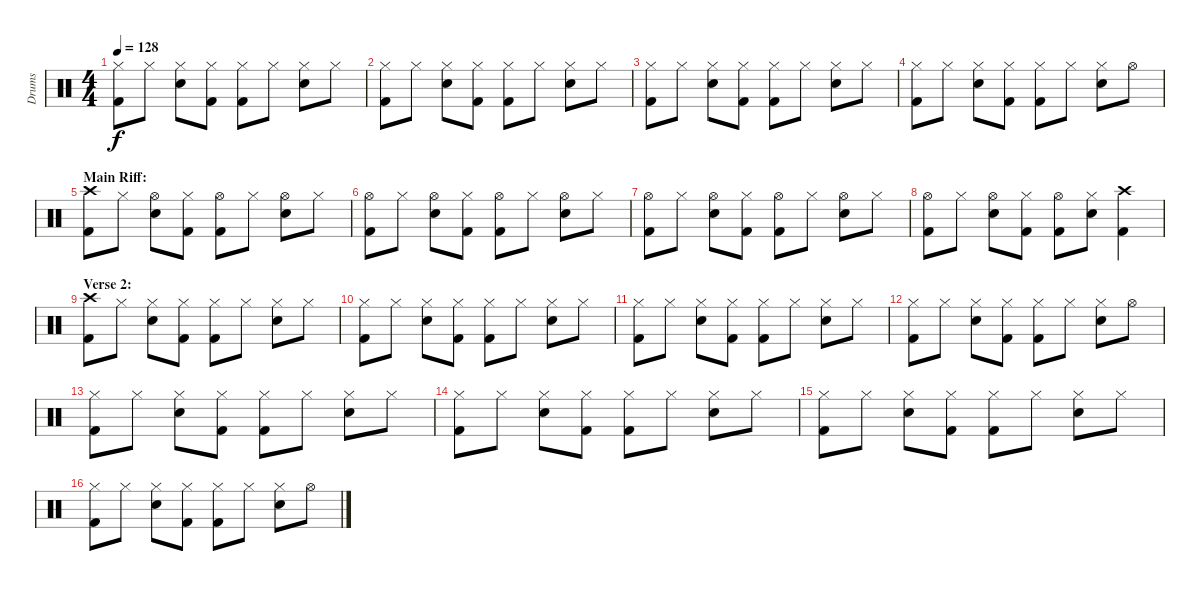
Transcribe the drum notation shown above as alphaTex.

\track ("Drums" "Drums") {instrument percussion}
\staff {score}
\articulation defaults
\ts (4 4)
\tempo 128
\clef neutral
\ks c
("Hi-Hat (closed)" "Kick (hit) 2").8{dy f} "Hi-Hat (closed)".8 ("Hi-Hat (closed)" "Electric Snare (hit)").8 ("Hi-Hat (closed)" "Kick (hit) 2").8 ("Hi-Hat (closed)" "Kick (hit) 2").8 "Hi-Hat (closed)".8 ("Hi-Hat (closed)" "Electric Snare (hit)").8 "Hi-Hat (closed)".8 |
("Hi-Hat (closed)" "Kick (hit) 2").8 "Hi-Hat (closed)".8 ("Hi-Hat (closed)" "Electric Snare (hit)").8 ("Hi-Hat (closed)" "Kick (hit) 2").8 ("Hi-Hat (closed)" "Kick (hit) 2").8 "Hi-Hat (closed)".8 ("Hi-Hat (closed)" "Electric Snare (hit)").8 "Hi-Hat (closed)".8 |
("Hi-Hat (closed)" "Kick (hit) 2").8 "Hi-Hat (closed)".8 ("Hi-Hat (closed)" "Electric Snare (hit)").8 ("Hi-Hat (closed)" "Kick (hit) 2").8 ("Hi-Hat (closed)" "Kick (hit) 2").8 "Hi-Hat (closed)".8 ("Hi-Hat (closed)" "Electric Snare (hit)").8 "Hi-Hat (closed)".8 |
("Hi-Hat (closed)" "Kick (hit) 2").8 "Hi-Hat (closed)".8 ("Hi-Hat (closed)" "Electric Snare (hit)").8 ("Hi-Hat (closed)" "Kick (hit) 2").8 ("Hi-Hat (closed)" "Kick (hit) 2").8 "Hi-Hat (closed)".8 ("Hi-Hat (closed)" "Electric Snare (hit)").8 "Hi-Hat (open)".8 |
\section ("" "Main Riff:")
("Crash high (hit)" "Kick (hit) 2").8 "Hi-Hat (closed)".8 ("Hi-Hat (open)" "Electric Snare (hit)").8 ("Hi-Hat (closed)" "Kick (hit) 2").8 ("Hi-Hat (open)" "Kick (hit) 2").8 "Hi-Hat (closed)".8 ("Hi-Hat (open)" "Electric Snare (hit)").8 "Hi-Hat (closed)".8 |
("Hi-Hat (open)" "Kick (hit) 2").8 "Hi-Hat (closed)".8 ("Hi-Hat (open)" "Electric Snare (hit)").8 ("Hi-Hat (closed)" "Kick (hit) 2").8 ("Hi-Hat (open)" "Kick (hit) 2").8 "Hi-Hat (closed)".8 ("Hi-Hat (open)" "Electric Snare (hit)").8 "Hi-Hat (closed)".8 |
("Hi-Hat (open)" "Kick (hit) 2").8 "Hi-Hat (closed)".8 ("Hi-Hat (open)" "Electric Snare (hit)").8 ("Hi-Hat (closed)" "Kick (hit) 2").8 ("Hi-Hat (open)" "Kick (hit) 2").8 "Hi-Hat (closed)".8 ("Hi-Hat (open)" "Electric Snare (hit)").8 "Hi-Hat (closed)".8 |
("Hi-Hat (open)" "Kick (hit) 2").8 "Hi-Hat (closed)".8 ("Hi-Hat (open)" "Electric Snare (hit)").8 ("Hi-Hat (closed)" "Kick (hit) 2").8 ("Hi-Hat (open)" "Kick (hit) 2").8 ("Hi-Hat (closed)" "Electric Snare (hit)").8 ("Crash high (hit)" "Kick (hit) 2").4 |
\section ("" "Verse 2:")
("Crash high (hit)" "Kick (hit) 2").8 "Hi-Hat (closed)".8 ("Hi-Hat (closed)" "Electric Snare (hit)").8 ("Hi-Hat (closed)" "Kick (hit) 2").8 ("Hi-Hat (closed)" "Kick (hit) 2").8 "Hi-Hat (closed)".8 ("Hi-Hat (closed)" "Electric Snare (hit)").8 "Hi-Hat (closed)".8 |
("Hi-Hat (closed)" "Kick (hit) 2").8 "Hi-Hat (closed)".8 ("Hi-Hat (closed)" "Electric Snare (hit)").8 ("Hi-Hat (closed)" "Kick (hit) 2").8 ("Hi-Hat (closed)" "Kick (hit) 2").8 "Hi-Hat (closed)".8 ("Hi-Hat (closed)" "Electric Snare (hit)").8 "Hi-Hat (closed)".8 |
("Hi-Hat (closed)" "Kick (hit) 2").8 "Hi-Hat (closed)".8 ("Hi-Hat (closed)" "Electric Snare (hit)").8 ("Hi-Hat (closed)" "Kick (hit) 2").8 ("Hi-Hat (closed)" "Kick (hit) 2").8 "Hi-Hat (closed)".8 ("Hi-Hat (closed)" "Electric Snare (hit)").8 "Hi-Hat (closed)".8 |
("Hi-Hat (closed)" "Kick (hit) 2").8 "Hi-Hat (closed)".8 ("Hi-Hat (closed)" "Electric Snare (hit)").8 ("Hi-Hat (closed)" "Kick (hit) 2").8 ("Hi-Hat (closed)" "Kick (hit) 2").8 "Hi-Hat (closed)".8 ("Hi-Hat (closed)" "Electric Snare (hit)").8 "Hi-Hat (open)".8 |
("Hi-Hat (closed)" "Kick (hit) 2").8 "Hi-Hat (closed)".8 ("Hi-Hat (closed)" "Electric Snare (hit)").8 ("Hi-Hat (closed)" "Kick (hit) 2").8 ("Hi-Hat (closed)" "Kick (hit) 2").8 "Hi-Hat (closed)".8 ("Hi-Hat (closed)" "Electric Snare (hit)").8 "Hi-Hat (closed)".8 |
("Hi-Hat (closed)" "Kick (hit) 2").8 "Hi-Hat (closed)".8 ("Hi-Hat (closed)" "Electric Snare (hit)").8 ("Hi-Hat (closed)" "Kick (hit) 2").8 ("Hi-Hat (closed)" "Kick (hit) 2").8 "Hi-Hat (closed)".8 ("Hi-Hat (closed)" "Electric Snare (hit)").8 "Hi-Hat (closed)".8 |
("Hi-Hat (closed)" "Kick (hit) 2").8 "Hi-Hat (closed)".8 ("Hi-Hat (closed)" "Electric Snare (hit)").8 ("Hi-Hat (closed)" "Kick (hit) 2").8 ("Hi-Hat (closed)" "Kick (hit) 2").8 "Hi-Hat (closed)".8 ("Hi-Hat (closed)" "Electric Snare (hit)").8 "Hi-Hat (closed)".8 |
("Hi-Hat (closed)" "Kick (hit) 2").8 "Hi-Hat (closed)".8 ("Hi-Hat (closed)" "Electric Snare (hit)").8 ("Hi-Hat (closed)" "Kick (hit) 2").8 ("Hi-Hat (closed)" "Kick (hit) 2").8 "Hi-Hat (closed)".8 ("Hi-Hat (closed)" "Electric Snare (hit)").8 "Hi-Hat (open)".8
